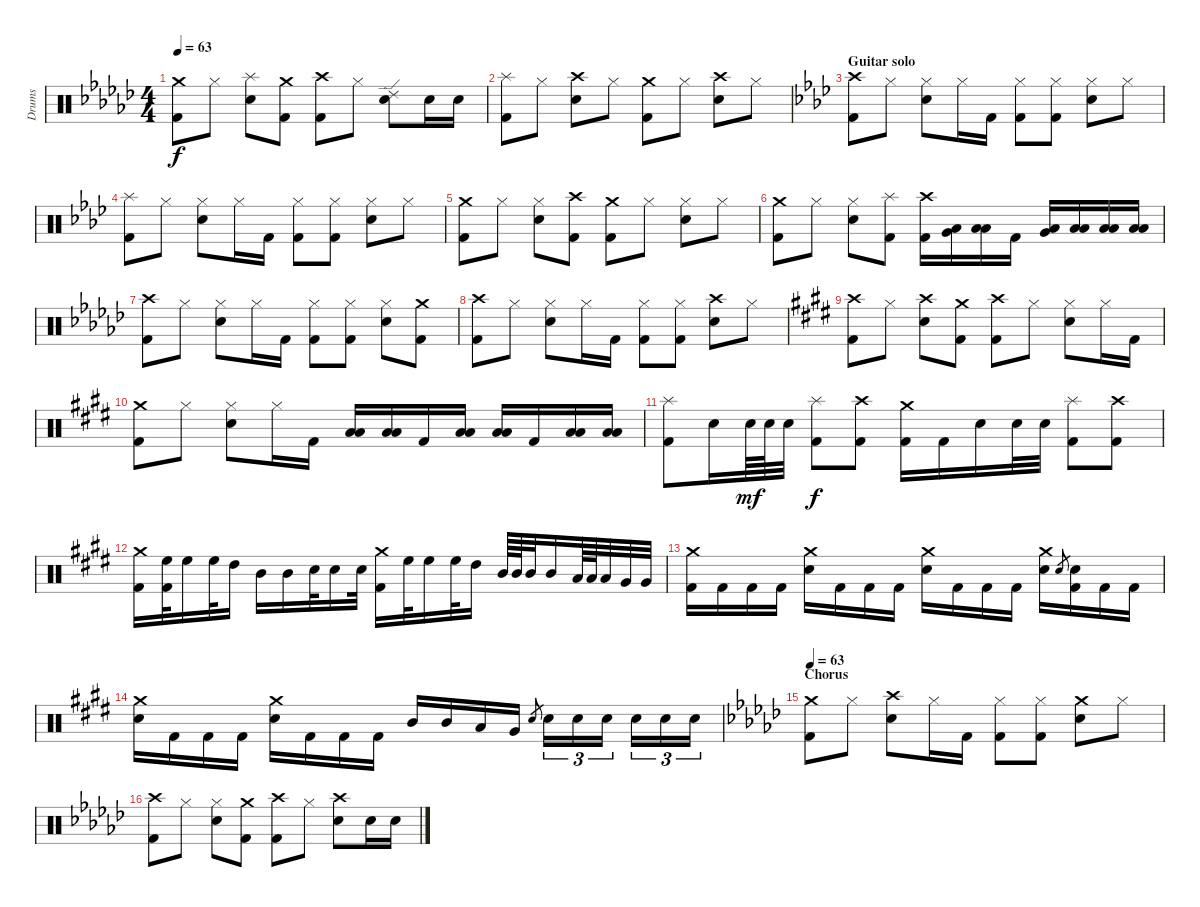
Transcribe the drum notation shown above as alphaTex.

\track ("Drums" "Drums") {instrument percussion}
\staff {score}
\articulation defaults
\ts (4 4)
\tempo 63
\clef neutral
\ks ebminor
("Crash medium (hit)" "Kick (hit) 2").8{dy f} "Hi-Hat (closed)".8 ("Splash (hit)" "Snare (hit) 2").8 ("Crash medium (hit)" "Kick (hit) 2").8 ("Crash high (hit)" "Kick (hit) 2").8 "Hi-Hat (closed)".8 ("Ride (edge) 2" "Snare (hit) 2").8 "Snare (hit) 2".16 "Snare (hit) 2".16 |
("Splash (hit)" "Kick (hit) 2").8 "Hi-Hat (closed)".8 ("Crash high (hit)" "Snare (hit) 2").8 "Hi-Hat (closed)".8 ("Crash medium (hit)" "Kick (hit) 2").8 "Hi-Hat (closed)".8 ("Crash high (hit)" "Snare (hit) 2").8 "Hi-Hat (closed)".8 |
\section ("" "Guitar solo")
\ks fminor
("Crash high (hit)" "Kick (hit) 2").8 "Hi-Hat (closed)".8 ("Hi-Hat (closed)" "Snare (hit) 2").8 "Hi-Hat (closed)".16 "Kick (hit) 2".16 ("Hi-Hat (closed)" "Kick (hit) 2").8 ("Hi-Hat (closed)" "Kick (hit) 2").8 ("Hi-Hat (closed)" "Snare (hit) 2").8 "Hi-Hat (closed)".8 |
("Splash (hit)" "Kick (hit) 2").8 "Hi-Hat (closed)".8 ("Hi-Hat (closed)" "Snare (hit) 2").8 "Hi-Hat (closed)".16 "Kick (hit) 2".16 ("Hi-Hat (closed)" "Kick (hit) 2").8 ("Hi-Hat (closed)" "Kick (hit) 2").8 ("Hi-Hat (closed)" "Snare (hit) 2").8 "Hi-Hat (closed)".8 |
("Crash medium (hit)" "Kick (hit) 2").8 "Hi-Hat (closed)".8 ("Hi-Hat (closed)" "Snare (hit) 2").8 ("Crash high (hit)" "Kick (hit) 2").8 ("Crash medium (hit)" "Kick (hit) 2").8 "Hi-Hat (closed)".8 ("Hi-Hat (closed)" "Snare (hit) 2").8 "Hi-Hat (closed)".8 |
("Crash medium (hit)" "Kick (hit) 2").8 "Hi-Hat (closed)".8 ("Hi-Hat (closed)" "Snare (hit) 2").8 ("Splash (hit)" "Kick (hit) 2").8 ("Crash high (hit)" "Kick (hit) 2").16 ("Low Tom (hit)" "Very Low Tom (hit)").16 ("Low Tom (hit)" "Low Floor Tom (hit)").16 "Kick (hit) 2".16 ("Low Tom (hit)" "Very Low Tom (hit)").16 ("Low Tom (hit)" "Low Floor Tom (hit)").16 ("Low Tom (hit)" "Low Floor Tom (hit)").16 ("Low Tom (hit)" "Low Floor Tom (hit)").16 |
\ks ebminor
("Crash high (hit)" "Kick (hit) 2").8 "Hi-Hat (closed)".8 ("Hi-Hat (closed)" "Snare (hit) 2").8 "Hi-Hat (closed)".16 "Kick (hit) 2".16 ("Hi-Hat (closed)" "Kick (hit) 2").8 ("Hi-Hat (closed)" "Kick (hit) 2").8 ("Hi-Hat (closed)" "Snare (hit) 2").8 ("Crash medium (hit)" "Kick (hit) 2").8 |
("Crash high (hit)" "Kick (hit) 2").8 "Hi-Hat (closed)".8 ("Hi-Hat (closed)" "Snare (hit) 2").8 "Hi-Hat (closed)".16 "Kick (hit) 2".16 ("Hi-Hat (closed)" "Kick (hit) 2").8 ("Hi-Hat (closed)" "Kick (hit) 2").8 ("Crash high (hit)" "Snare (hit) 2").8 "Hi-Hat (closed)".8 |
\ks c#minor
("Crash high (hit)" "Kick (hit) 2").8 "Hi-Hat (closed)".8 ("Crash high (hit)" "Snare (hit) 2").8 ("Crash medium (hit)" "Kick (hit) 2").8 ("Crash high (hit)" "Kick (hit) 2").8 "Hi-Hat (closed)".8 ("Hi-Hat (closed)" "Snare (hit) 2").8 "Hi-Hat (closed)".16 "Kick (hit) 2".16 |
("Crash medium (hit)" "Kick (hit) 2").8 "Hi-Hat (closed)".8 ("Hi-Hat (closed)" "Snare (hit) 2").8 "Hi-Hat (closed)".16 "Kick (hit) 2".16 ("Low Tom (hit)" "Low Floor Tom (hit)").16 ("Low Tom (hit)" "Low Floor Tom (hit)").16 "Kick (hit) 2".16 ("Low Tom (hit)" "Low Floor Tom (hit)").16 ("Low Tom (hit)" "Low Floor Tom (hit)").16 "Kick (hit) 2".16 ("Low Tom (hit)" "Low Floor Tom (hit)").16 ("Low Tom (hit)" "Low Floor Tom (hit)").16 |
("Splash (hit)" "Kick (hit) 2").8 "Snare (hit) 2".16 "Snare (hit) 2".64{dy mf} "Snare (hit) 2".64 "Snare (hit) 2".32 ("Splash (hit)" "Kick (hit) 2").8{dy f} ("Crash high (hit)" "Kick (hit) 2").8 ("Crash medium (hit)" "Kick (hit) 2").16 "Kick (hit) 2".16 "Snare (hit) 2".16 "Snare (hit) 2".32 "Snare (hit) 2".32 ("Splash (hit)" "Kick (hit) 2").8 ("Crash high (hit)" "Kick (hit) 2").8 |
("Crash medium (hit)" "Kick (hit) 2").16 ("High Floor Tom (hit)" "Kick (hit) 2").32 "High Floor Tom (hit)".16 "High Floor Tom (hit)".32 "High Tom (hit)".16 "Mid Tom (hit)".16 "Mid Tom (hit)".16 "Snare (hit) 2".32 "Snare (hit) 2".16 "Snare (hit) 2".32 ("Crash medium (hit)" "Kick (hit) 2").16 "High Floor Tom (hit)".32 "High Floor Tom (hit)".16 "High Floor Tom (hit)".32 "High Tom (hit)".16 "Mid Tom (hit)".64 "Mid Tom (hit)".64 "Mid Tom (hit)".32 "Mid Tom (hit)".16 "Low Tom (hit)".64 "Low Tom (hit)".64 "Low Tom (hit)".32 "Very Low Tom (hit)".32 "Very Low Tom (hit)".32 |
("Crash medium (hit)" "Kick (hit) 2").16 "Kick (hit) 2".16 "Kick (hit) 2".16 "Kick (hit) 2".16 ("Crash medium (hit)" "Snare (hit) 2").16 "Kick (hit) 2".16 "Kick (hit) 2".16 "Kick (hit) 2".16 ("Crash medium (hit)" "Snare (hit) 2").16 "Kick (hit) 2".16 "Kick (hit) 2".16 "Kick (hit) 2".16 ("Crash medium (hit)" "Snare (hit) 2").16 "Snare (hit) 2".8{gr} ("Snare (hit) 2" "Kick (hit) 2").16 "Kick (hit) 2".16 "Kick (hit) 2".16 |
("Crash medium (hit)" "Snare (hit) 2").16 "Kick (hit) 2".16 "Kick (hit) 2".16 "Kick (hit) 2".16 ("Crash medium (hit)" "Snare (hit) 2").16 "Kick (hit) 2".16 "Kick (hit) 2".16 "Kick (hit) 2".16 "Mid Tom (hit)".16 "Mid Tom (hit)".16 "Low Tom (hit)".16 "Very Low Tom (hit)".16 "Snare (hit) 2".8{gr} "Snare (hit) 2".16{tu (3 2)} "Snare (hit) 2".16{tu (3 2)} "Snare (hit) 2".16{tu (3 2)} "Snare (hit) 2".16{tu (3 2)} "Snare (hit) 2".16{tu (3 2)} "Snare (hit) 2".16{tu (3 2)} |
\section ("" "Chorus")
\tempo 63
\ks ebminor
("Crash medium (hit)" "Kick (hit) 2").8 "Hi-Hat (closed)".8 ("Crash high (hit)" "Snare (hit) 2").8 "Hi-Hat (closed)".16 "Kick (hit) 2".16 ("Hi-Hat (closed)" "Kick (hit) 2").8 ("Hi-Hat (closed)" "Kick (hit) 2").8 ("Crash medium (hit)" "Snare (hit) 2").8 "Hi-Hat (closed)".8 |
("Crash high (hit)" "Kick (hit) 2").8 "Hi-Hat (closed)".8 ("Hi-Hat (closed)" "Snare (hit) 2").8 ("Crash medium (hit)" "Kick (hit) 2").8 ("Crash high (hit)" "Kick (hit) 2").8 "Hi-Hat (closed)".8 ("Crash high (hit)" "Snare (hit) 2").8 "Snare (hit) 2".16 "Snare (hit) 2".16
